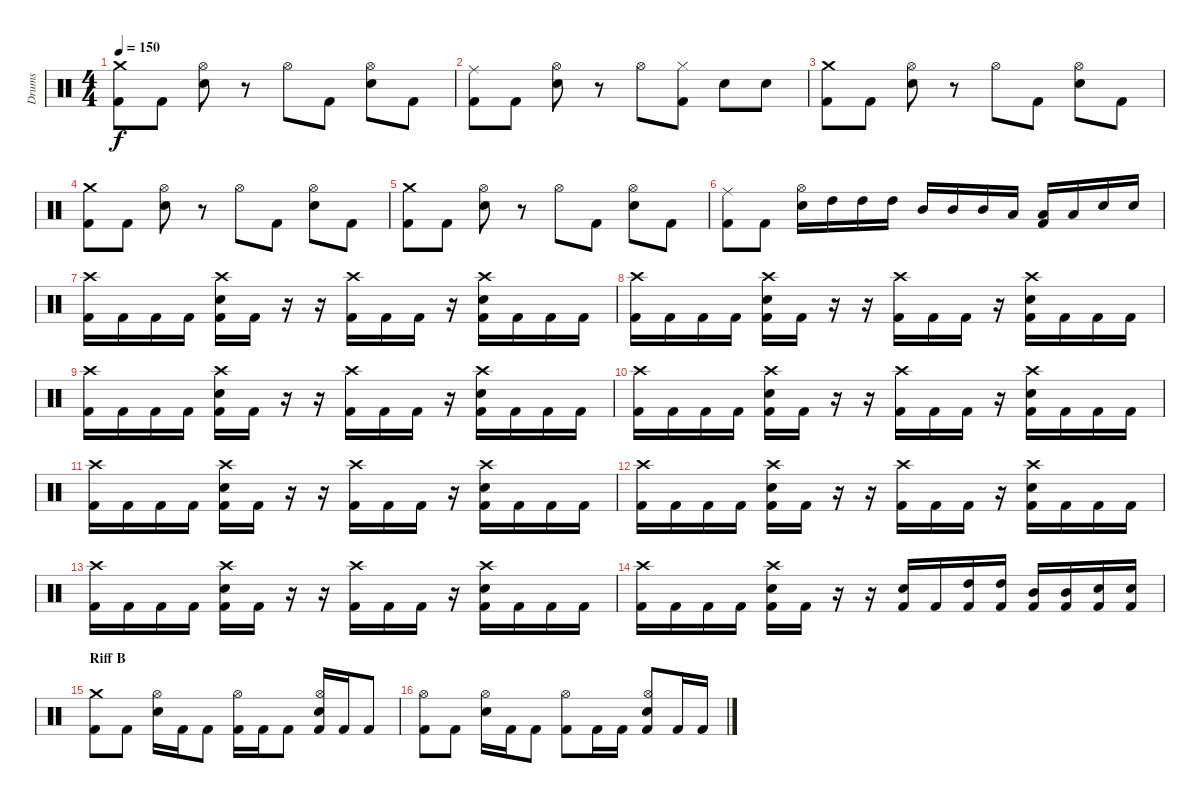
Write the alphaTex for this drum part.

\track ("Drums" "Drums") {instrument percussion}
\staff {score}
\articulation defaults
\ts (4 4)
\tempo 150
\clef neutral
\ks c
("Crash medium (hit)" "Kick (hit) 2").8{dy f} "Kick (hit) 2".8 ("Hi-Hat (open)" "Electric Snare (hit)").8 r.8 "Hi-Hat (open)".8 "Kick (hit) 2".8 ("Hi-Hat (open)" "Electric Snare (hit)").8 "Kick (hit) 2".8 |
("Ride (middle)" "Kick (hit) 2").8 "Kick (hit) 2".8 ("Hi-Hat (open)" "Electric Snare (hit)").8 r.8 "Hi-Hat (open)".8 ("Hi-Hat (closed)" "Kick (hit) 2").8 "Electric Snare (hit)".8 "Electric Snare (hit)".8 |
("Crash medium (hit)" "Kick (hit) 2").8 "Kick (hit) 2".8 ("Hi-Hat (open)" "Electric Snare (hit)").8 r.8 "Hi-Hat (open)".8 "Kick (hit) 2".8 ("Hi-Hat (open)" "Electric Snare (hit)").8 "Kick (hit) 2".8 |
("Crash medium (hit)" "Kick (hit) 2").8 "Kick (hit) 2".8 ("Hi-Hat (open)" "Electric Snare (hit)").8 r.8 "Hi-Hat (open)".8 "Kick (hit) 2".8 ("Hi-Hat (open)" "Electric Snare (hit)").8 "Kick (hit) 2".8 |
("Crash medium (hit)" "Kick (hit) 2").8 "Kick (hit) 2".8 ("Hi-Hat (open)" "Electric Snare (hit)").8 r.8 "Hi-Hat (open)".8 "Kick (hit) 2".8 ("Hi-Hat (open)" "Electric Snare (hit)").8 "Kick (hit) 2".8 |
("Ride (middle)" "Kick (hit) 2").8 "Kick (hit) 2".8 ("Hi-Hat (open)" "Electric Snare (hit)").16 "High Tom (hit)".16 "High Tom (hit)".16 "High Tom (hit)".16 "Mid Tom (hit)".16 "Mid Tom (hit)".16 "Mid Tom (hit)".16 "Low Tom (hit)".16 ("Low Tom (hit)" "Kick (hit) 2").16 "Low Tom (hit)".16 "Electric Snare (hit)".16 "Electric Snare (hit)".16 |
("Crash high (hit)" "Kick (hit) 2").16 "Kick (hit) 2".16 "Kick (hit) 2".16 "Kick (hit) 2".16 ("Crash high (hit)" "Electric Snare (hit)" "Kick (hit) 2").16 "Kick (hit) 2".16 r.16 r.16 ("Crash high (hit)" "Kick (hit) 2").16 "Kick (hit) 2".16 "Kick (hit) 2".16 r.16 ("Crash high (hit)" "Electric Snare (hit)" "Kick (hit) 2").16 "Kick (hit) 2".16 "Kick (hit) 2".16 "Kick (hit) 2".16 |
("Crash high (hit)" "Kick (hit) 2").16 "Kick (hit) 2".16 "Kick (hit) 2".16 "Kick (hit) 2".16 ("Crash high (hit)" "Electric Snare (hit)" "Kick (hit) 2").16 "Kick (hit) 2".16 r.16 r.16 ("Crash high (hit)" "Kick (hit) 2").16 "Kick (hit) 2".16 "Kick (hit) 2".16 r.16 ("Crash high (hit)" "Electric Snare (hit)" "Kick (hit) 2").16 "Kick (hit) 2".16 "Kick (hit) 2".16 "Kick (hit) 2".16 |
("Crash high (hit)" "Kick (hit) 2").16 "Kick (hit) 2".16 "Kick (hit) 2".16 "Kick (hit) 2".16 ("Crash high (hit)" "Electric Snare (hit)" "Kick (hit) 2").16 "Kick (hit) 2".16 r.16 r.16 ("Crash high (hit)" "Kick (hit) 2").16 "Kick (hit) 2".16 "Kick (hit) 2".16 r.16 ("Crash high (hit)" "Electric Snare (hit)" "Kick (hit) 2").16 "Kick (hit) 2".16 "Kick (hit) 2".16 "Kick (hit) 2".16 |
("Crash high (hit)" "Kick (hit) 2").16 "Kick (hit) 2".16 "Kick (hit) 2".16 "Kick (hit) 2".16 ("Crash high (hit)" "Electric Snare (hit)" "Kick (hit) 2").16 "Kick (hit) 2".16 r.16 r.16 ("Crash high (hit)" "Kick (hit) 2").16 "Kick (hit) 2".16 "Kick (hit) 2".16 r.16 ("Crash high (hit)" "Electric Snare (hit)" "Kick (hit) 2").16 "Kick (hit) 2".16 "Kick (hit) 2".16 "Kick (hit) 2".16 |
("Crash high (hit)" "Kick (hit) 2").16 "Kick (hit) 2".16 "Kick (hit) 2".16 "Kick (hit) 2".16 ("Crash high (hit)" "Electric Snare (hit)" "Kick (hit) 2").16 "Kick (hit) 2".16 r.16 r.16 ("Crash high (hit)" "Kick (hit) 2").16 "Kick (hit) 2".16 "Kick (hit) 2".16 r.16 ("Crash high (hit)" "Electric Snare (hit)" "Kick (hit) 2").16 "Kick (hit) 2".16 "Kick (hit) 2".16 "Kick (hit) 2".16 |
("Crash high (hit)" "Kick (hit) 2").16 "Kick (hit) 2".16 "Kick (hit) 2".16 "Kick (hit) 2".16 ("Crash high (hit)" "Electric Snare (hit)" "Kick (hit) 2").16 "Kick (hit) 2".16 r.16 r.16 ("Crash high (hit)" "Kick (hit) 2").16 "Kick (hit) 2".16 "Kick (hit) 2".16 r.16 ("Crash high (hit)" "Electric Snare (hit)" "Kick (hit) 2").16 "Kick (hit) 2".16 "Kick (hit) 2".16 "Kick (hit) 2".16 |
("Crash high (hit)" "Kick (hit) 2").16 "Kick (hit) 2".16 "Kick (hit) 2".16 "Kick (hit) 2".16 ("Crash high (hit)" "Electric Snare (hit)" "Kick (hit) 2").16 "Kick (hit) 2".16 r.16 r.16 ("Crash high (hit)" "Kick (hit) 2").16 "Kick (hit) 2".16 "Kick (hit) 2".16 r.16 ("Crash high (hit)" "Electric Snare (hit)" "Kick (hit) 2").16 "Kick (hit) 2".16 "Kick (hit) 2".16 "Kick (hit) 2".16 |
("Crash high (hit)" "Kick (hit) 2").16 "Kick (hit) 2".16 "Kick (hit) 2".16 "Kick (hit) 2".16 ("Crash high (hit)" "Electric Snare (hit)" "Kick (hit) 2").16 "Kick (hit) 2".16 r.16 r.16 ("Electric Snare (hit)" "Kick (hit) 2").16 "Kick (hit) 2".16 ("High Tom (hit)" "Kick (hit) 2").16 ("High Tom (hit)" "Kick (hit) 2").16 ("Mid Tom (hit)" "Kick (hit) 2").16 ("Mid Tom (hit)" "Kick (hit) 2").16 ("Electric Snare (hit)" "Kick (hit) 2").16 ("Electric Snare (hit)" "Kick (hit) 2").16 |
\section ("" "Riff B")
("Crash medium (hit)" "Kick (hit) 2").8 "Kick (hit) 2".8 ("Hi-Hat (open)" "Electric Snare (hit)").16 "Kick (hit) 2".16 "Kick (hit) 2".8 ("Hi-Hat (open)" "Kick (hit) 2").16 "Kick (hit) 2".16 "Kick (hit) 2".8 ("Hi-Hat (open)" "Electric Snare (hit)" "Kick (hit) 2").16 "Kick (hit) 2".16 "Kick (hit) 2".8 |
("Hi-Hat (open)" "Kick (hit) 2").8 "Kick (hit) 2".8 ("Hi-Hat (open)" "Electric Snare (hit)").16 "Kick (hit) 2".16 "Kick (hit) 2".8 ("Hi-Hat (open)" "Kick (hit) 2").8 "Kick (hit) 2".16 "Kick (hit) 2".16 ("Hi-Hat (open)" "Electric Snare (hit)" "Kick (hit) 2").8 "Kick (hit) 2".16 "Kick (hit) 2".16
